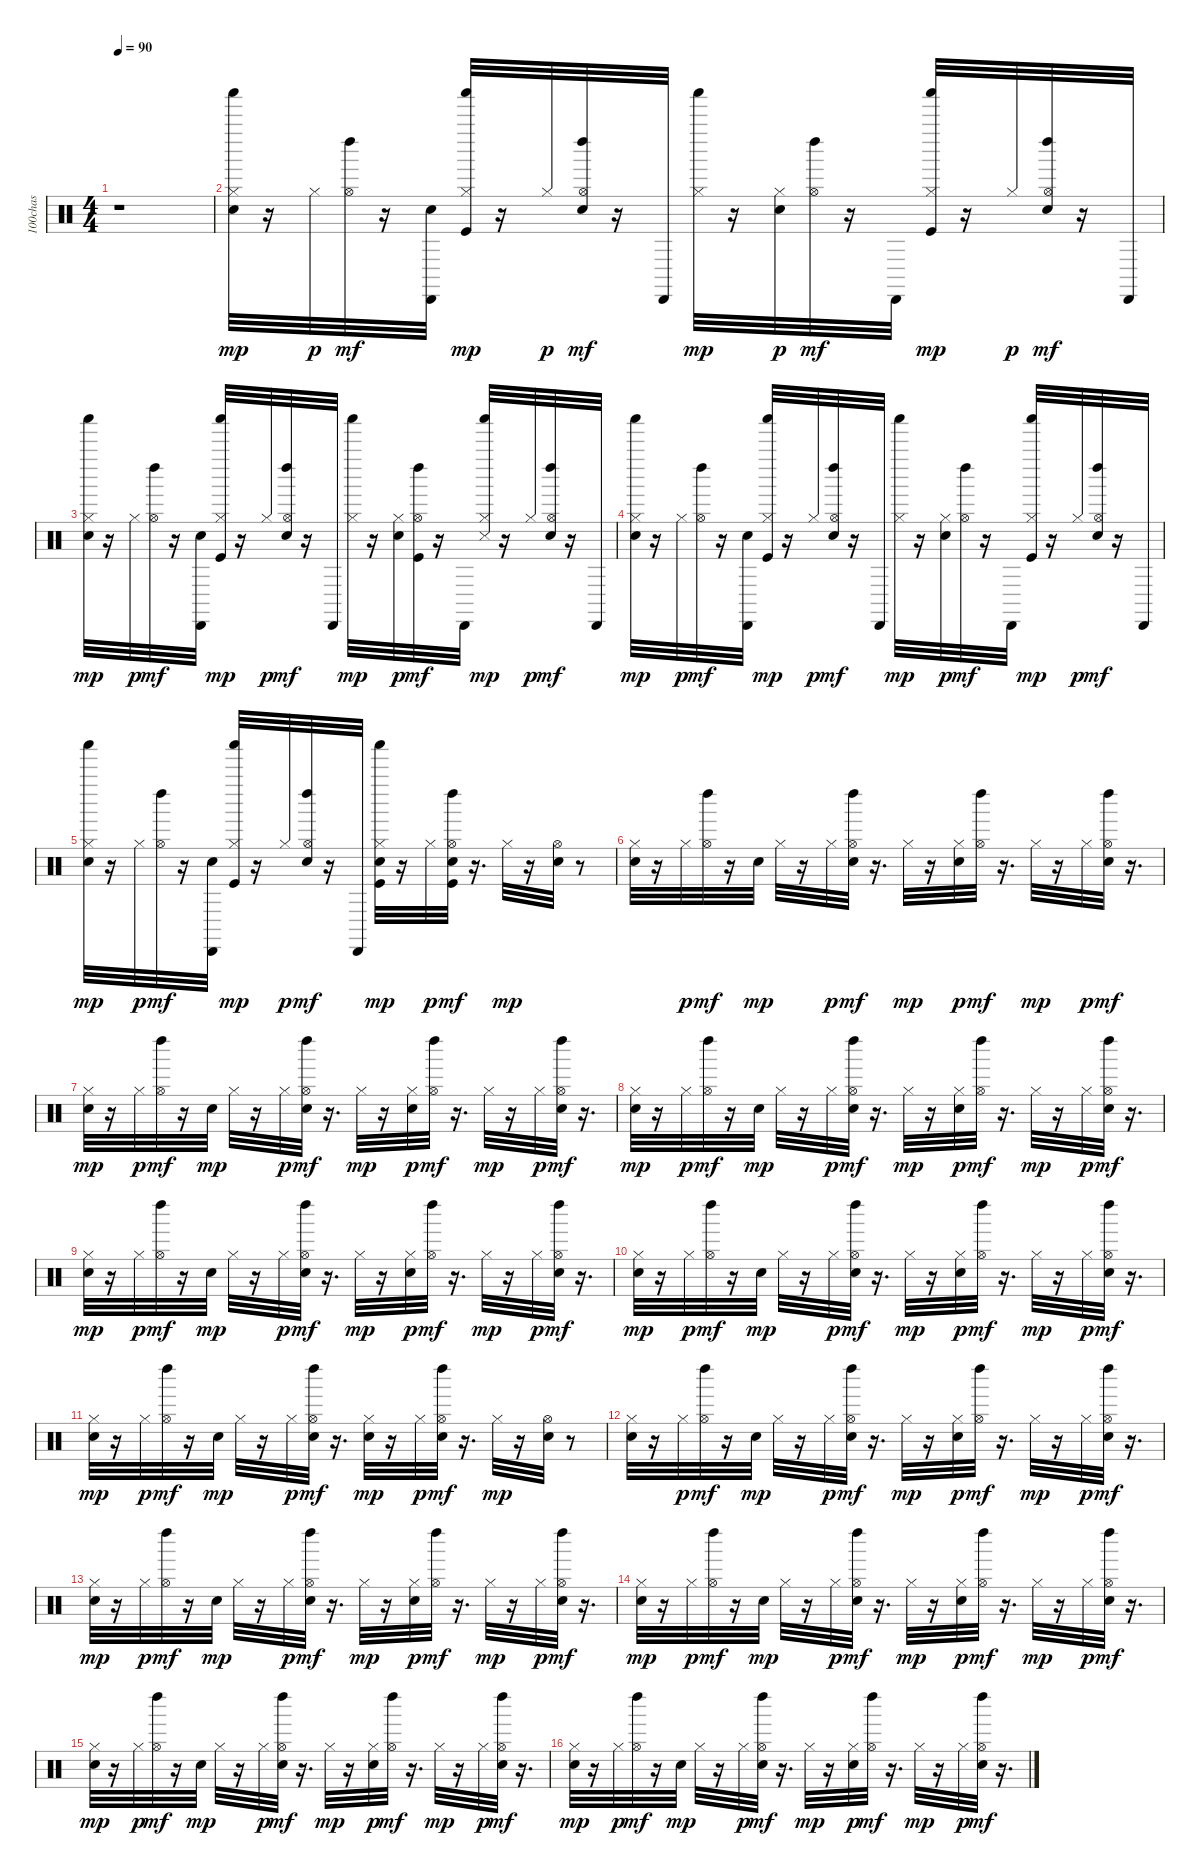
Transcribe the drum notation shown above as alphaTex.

\track ("100chas" "100chas") {instrument percussion}
\staff {score}
\articulation defaults
\ts (4 4)
\tempo 90
\clef neutral
\ks c
r.1{dy mp} |
("Hand Clap (hit)" "Hi-Hat (closed)" "Shaker (hit)").32 r.16 "Hi-Hat (closed)".32{dy p} ("Hi-Hat (open)" "Left Maraca (hit)").32{dy mf} r.16 ("Hand Clap (hit)" "Cabasa (hit)").32 ("Kick (hit)" "Hi-Hat (closed)" "Shaker (hit)").32{dy mp} r.16 "Hi-Hat (closed)".32{dy p} ("Hand Clap (hit)" "Hi-Hat (open)" "Left Maraca (hit)").32{dy mf} r.16 "Cabasa (hit)".32 ("Hi-Hat (closed)" "Shaker (hit)").32{dy mp} r.16 ("Hand Clap (hit)" "Hi-Hat (closed)").32{dy p} ("Hi-Hat (open)" "Left Maraca (hit)").32{dy mf} r.16 "Cabasa (hit)".32 ("Kick (hit)" "Hi-Hat (closed)" "Shaker (hit)").32{dy mp} r.16 "Hi-Hat (closed)".32{dy p} ("Hand Clap (hit)" "Hi-Hat (open)" "Left Maraca (hit)").32{dy mf} r.16 "Cabasa (hit)".32 |
("Hand Clap (hit)" "Hi-Hat (closed)" "Shaker (hit)").32{dy mp} r.16 "Hi-Hat (closed)".32{dy p} ("Hi-Hat (open)" "Left Maraca (hit)").32{dy mf} r.16 ("Hand Clap (hit)" "Cabasa (hit)").32 ("Kick (hit)" "Hi-Hat (closed)" "Shaker (hit)").32{dy mp} r.16 "Hi-Hat (closed)".32{dy p} ("Hand Clap (hit)" "Hi-Hat (open)" "Left Maraca (hit)").32{dy mf} r.16 "Cabasa (hit)".32 ("Hi-Hat (closed)" "Shaker (hit)").32{dy mp} r.16 ("Hand Clap (hit)" "Hi-Hat (closed)").32{dy p} ("Kick (hit)" "Hi-Hat (open)" "Left Maraca (hit)").32{dy mf} r.16 "Cabasa (hit)".32 ("Snare (side stick) 3" "Hi-Hat (closed)" "Shaker (hit)").32{dy mp} r.16 "Hi-Hat (closed)".32{dy p} ("Hand Clap (hit)" "Hi-Hat (open)" "Left Maraca (hit)").32{dy mf} r.16 "Cabasa (hit)".32 |
("Hand Clap (hit)" "Hi-Hat (closed)" "Shaker (hit)").32{dy mp} r.16 "Hi-Hat (closed)".32{dy p} ("Hi-Hat (open)" "Left Maraca (hit)").32{dy mf} r.16 ("Hand Clap (hit)" "Cabasa (hit)").32 ("Kick (hit)" "Hi-Hat (closed)" "Shaker (hit)").32{dy mp} r.16 "Hi-Hat (closed)".32{dy p} ("Hand Clap (hit)" "Hi-Hat (open)" "Left Maraca (hit)").32{dy mf} r.16 "Cabasa (hit)".32 ("Hi-Hat (closed)" "Shaker (hit)").32{dy mp} r.16 ("Hand Clap (hit)" "Hi-Hat (closed)").32{dy p} ("Hi-Hat (open)" "Left Maraca (hit)").32{dy mf} r.16 "Cabasa (hit)".32 ("Kick (hit)" "Hi-Hat (closed)" "Shaker (hit)").32{dy mp} r.16 "Hi-Hat (closed)".32{dy p} ("Hand Clap (hit)" "Hi-Hat (open)" "Left Maraca (hit)").32{dy mf} r.16 "Cabasa (hit)".32 |
("Hand Clap (hit)" "Hi-Hat (closed)" "Shaker (hit)").32{dy mp} r.16 "Hi-Hat (closed)".32{dy p} ("Hi-Hat (open)" "Left Maraca (hit)").32{dy mf} r.16 ("Hand Clap (hit)" "Cabasa (hit)").32 ("Kick (hit)" "Hi-Hat (closed)" "Shaker (hit)").32{dy mp} r.16 "Hi-Hat (closed)".32{dy p} ("Hand Clap (hit)" "Hi-Hat (open)" "Left Maraca (hit)").32{dy mf} r.16 "Cabasa (hit)".32 ("Kick (hit)" "Hand Clap (hit)" "Hi-Hat (closed)" "Shaker (hit)").32{dy mp} r.16 "Hi-Hat (closed)".32{dy p} ("Kick (hit)" "Hand Clap (hit)" "Hi-Hat (open)" "Left Maraca (hit)").32{dy mf} r.16{d} "Hi-Hat (closed)".32{dy mp} r.16 ("Hand Clap (hit)" "Hi-Hat (open)").32 r.8 |
("Hand Clap (hit)" "Hi-Hat (closed)").32 r.16 "Hi-Hat (closed)".32{dy p} ("Hi-Hat (open)" "Left Maraca (hit)").32{dy mf} r.16 "Hand Clap (hit)".32{dy mp} "Hi-Hat (closed)".32 r.16 "Hi-Hat (closed)".32{dy p} ("Hand Clap (hit)" "Hi-Hat (open)" "Left Maraca (hit)").32{dy mf} r.16{d} "Hi-Hat (closed)".32{dy mp} r.16 ("Hand Clap (hit)" "Hi-Hat (closed)").32{dy p} ("Hi-Hat (open)" "Left Maraca (hit)").32{dy mf} r.16{d} "Hi-Hat (closed)".32{dy mp} r.16 "Hi-Hat (closed)".32{dy p} ("Hand Clap (hit)" "Hi-Hat (open)" "Left Maraca (hit)").32{dy mf} r.16{d} |
("Hand Clap (hit)" "Hi-Hat (closed)").32{dy mp} r.16 "Hi-Hat (closed)".32{dy p} ("Hi-Hat (open)" "Left Maraca (hit)").32{dy mf} r.16 "Hand Clap (hit)".32{dy mp} "Hi-Hat (closed)".32 r.16 "Hi-Hat (closed)".32{dy p} ("Hand Clap (hit)" "Hi-Hat (open)" "Left Maraca (hit)").32{dy mf} r.16{d} "Hi-Hat (closed)".32{dy mp} r.16 ("Hand Clap (hit)" "Hi-Hat (closed)").32{dy p} ("Hi-Hat (open)" "Left Maraca (hit)").32{dy mf} r.16{d} "Hi-Hat (closed)".32{dy mp} r.16 "Hi-Hat (closed)".32{dy p} ("Hand Clap (hit)" "Hi-Hat (open)" "Left Maraca (hit)").32{dy mf} r.16{d} |
("Hand Clap (hit)" "Hi-Hat (closed)").32{dy mp} r.16 "Hi-Hat (closed)".32{dy p} ("Hi-Hat (open)" "Left Maraca (hit)").32{dy mf} r.16 "Hand Clap (hit)".32{dy mp} "Hi-Hat (closed)".32 r.16 "Hi-Hat (closed)".32{dy p} ("Hand Clap (hit)" "Hi-Hat (open)" "Left Maraca (hit)").32{dy mf} r.16{d} "Hi-Hat (closed)".32{dy mp} r.16 ("Hand Clap (hit)" "Hi-Hat (closed)").32{dy p} ("Hi-Hat (open)" "Left Maraca (hit)").32{dy mf} r.16{d} "Hi-Hat (closed)".32{dy mp} r.16 "Hi-Hat (closed)".32{dy p} ("Hand Clap (hit)" "Hi-Hat (open)" "Left Maraca (hit)").32{dy mf} r.16{d} |
("Hand Clap (hit)" "Hi-Hat (closed)").32{dy mp} r.16 "Hi-Hat (closed)".32{dy p} ("Hi-Hat (open)" "Left Maraca (hit)").32{dy mf} r.16 "Hand Clap (hit)".32{dy mp} "Hi-Hat (closed)".32 r.16 "Hi-Hat (closed)".32{dy p} ("Hand Clap (hit)" "Hi-Hat (open)" "Left Maraca (hit)").32{dy mf} r.16{d} "Hi-Hat (closed)".32{dy mp} r.16 ("Hand Clap (hit)" "Hi-Hat (closed)").32{dy p} ("Hi-Hat (open)" "Left Maraca (hit)").32{dy mf} r.16{d} "Hi-Hat (closed)".32{dy mp} r.16 "Hi-Hat (closed)".32{dy p} ("Hand Clap (hit)" "Hi-Hat (open)" "Left Maraca (hit)").32{dy mf} r.16{d} |
("Hand Clap (hit)" "Hi-Hat (closed)").32{dy mp} r.16 "Hi-Hat (closed)".32{dy p} ("Hi-Hat (open)" "Left Maraca (hit)").32{dy mf} r.16 "Hand Clap (hit)".32{dy mp} "Hi-Hat (closed)".32 r.16 "Hi-Hat (closed)".32{dy p} ("Hand Clap (hit)" "Hi-Hat (open)" "Left Maraca (hit)").32{dy mf} r.16{d} "Hi-Hat (closed)".32{dy mp} r.16 ("Hand Clap (hit)" "Hi-Hat (closed)").32{dy p} ("Hi-Hat (open)" "Left Maraca (hit)").32{dy mf} r.16{d} "Hi-Hat (closed)".32{dy mp} r.16 "Hi-Hat (closed)".32{dy p} ("Hand Clap (hit)" "Hi-Hat (open)" "Left Maraca (hit)").32{dy mf} r.16{d} |
("Hand Clap (hit)" "Hi-Hat (closed)").32{dy mp} r.16 "Hi-Hat (closed)".32{dy p} ("Hi-Hat (open)" "Left Maraca (hit)").32{dy mf} r.16 "Hand Clap (hit)".32{dy mp} "Hi-Hat (closed)".32 r.16 "Hi-Hat (closed)".32{dy p} ("Hand Clap (hit)" "Hi-Hat (open)" "Left Maraca (hit)").32{dy mf} r.16{d} ("Hand Clap (hit)" "Hi-Hat (closed)").32{dy mp} r.16 "Hi-Hat (closed)".32{dy p} ("Hand Clap (hit)" "Hi-Hat (open)" "Left Maraca (hit)").32{dy mf} r.16{d} "Hi-Hat (closed)".32{dy mp} r.16 ("Hand Clap (hit)" "Hi-Hat (open)").32 r.8 |
("Hand Clap (hit)" "Hi-Hat (closed)").32 r.16 "Hi-Hat (closed)".32{dy p} ("Hi-Hat (open)" "Left Maraca (hit)").32{dy mf} r.16 "Hand Clap (hit)".32{dy mp} "Hi-Hat (closed)".32 r.16 "Hi-Hat (closed)".32{dy p} ("Hand Clap (hit)" "Hi-Hat (open)" "Left Maraca (hit)").32{dy mf} r.16{d} "Hi-Hat (closed)".32{dy mp} r.16 ("Hand Clap (hit)" "Hi-Hat (closed)").32{dy p} ("Hi-Hat (open)" "Left Maraca (hit)").32{dy mf} r.16{d} "Hi-Hat (closed)".32{dy mp} r.16 "Hi-Hat (closed)".32{dy p} ("Hand Clap (hit)" "Hi-Hat (open)" "Left Maraca (hit)").32{dy mf} r.16{d} |
("Hand Clap (hit)" "Hi-Hat (closed)").32{dy mp} r.16 "Hi-Hat (closed)".32{dy p} ("Hi-Hat (open)" "Left Maraca (hit)").32{dy mf} r.16 "Hand Clap (hit)".32{dy mp} "Hi-Hat (closed)".32 r.16 "Hi-Hat (closed)".32{dy p} ("Hand Clap (hit)" "Hi-Hat (open)" "Left Maraca (hit)").32{dy mf} r.16{d} "Hi-Hat (closed)".32{dy mp} r.16 ("Hand Clap (hit)" "Hi-Hat (closed)").32{dy p} ("Hi-Hat (open)" "Left Maraca (hit)").32{dy mf} r.16{d} "Hi-Hat (closed)".32{dy mp} r.16 "Hi-Hat (closed)".32{dy p} ("Hand Clap (hit)" "Hi-Hat (open)" "Left Maraca (hit)").32{dy mf} r.16{d} |
("Hand Clap (hit)" "Hi-Hat (closed)").32{dy mp} r.16 "Hi-Hat (closed)".32{dy p} ("Hi-Hat (open)" "Left Maraca (hit)").32{dy mf} r.16 "Hand Clap (hit)".32{dy mp} "Hi-Hat (closed)".32 r.16 "Hi-Hat (closed)".32{dy p} ("Hand Clap (hit)" "Hi-Hat (open)" "Left Maraca (hit)").32{dy mf} r.16{d} "Hi-Hat (closed)".32{dy mp} r.16 ("Hand Clap (hit)" "Hi-Hat (closed)").32{dy p} ("Hi-Hat (open)" "Left Maraca (hit)").32{dy mf} r.16{d} "Hi-Hat (closed)".32{dy mp} r.16 "Hi-Hat (closed)".32{dy p} ("Hand Clap (hit)" "Hi-Hat (open)" "Left Maraca (hit)").32{dy mf} r.16{d} |
("Hand Clap (hit)" "Hi-Hat (closed)").32{dy mp} r.16 "Hi-Hat (closed)".32{dy p} ("Hi-Hat (open)" "Left Maraca (hit)").32{dy mf} r.16 "Hand Clap (hit)".32{dy mp} "Hi-Hat (closed)".32 r.16 "Hi-Hat (closed)".32{dy p} ("Hand Clap (hit)" "Hi-Hat (open)" "Left Maraca (hit)").32{dy mf} r.16{d} "Hi-Hat (closed)".32{dy mp} r.16 ("Hand Clap (hit)" "Hi-Hat (closed)").32{dy p} ("Hi-Hat (open)" "Left Maraca (hit)").32{dy mf} r.16{d} "Hi-Hat (closed)".32{dy mp} r.16 "Hi-Hat (closed)".32{dy p} ("Hand Clap (hit)" "Hi-Hat (open)" "Left Maraca (hit)").32{dy mf} r.16{d} |
("Hand Clap (hit)" "Hi-Hat (closed)").32{dy mp} r.16 "Hi-Hat (closed)".32{dy p} ("Hi-Hat (open)" "Left Maraca (hit)").32{dy mf} r.16 "Hand Clap (hit)".32{dy mp} "Hi-Hat (closed)".32 r.16 "Hi-Hat (closed)".32{dy p} ("Hand Clap (hit)" "Hi-Hat (open)" "Left Maraca (hit)").32{dy mf} r.16{d} "Hi-Hat (closed)".32{dy mp} r.16 ("Hand Clap (hit)" "Hi-Hat (closed)").32{dy p} ("Hi-Hat (open)" "Left Maraca (hit)").32{dy mf} r.16{d} "Hi-Hat (closed)".32{dy mp} r.16 "Hi-Hat (closed)".32{dy p} ("Hand Clap (hit)" "Hi-Hat (open)" "Left Maraca (hit)").32{dy mf} r.16{d}
